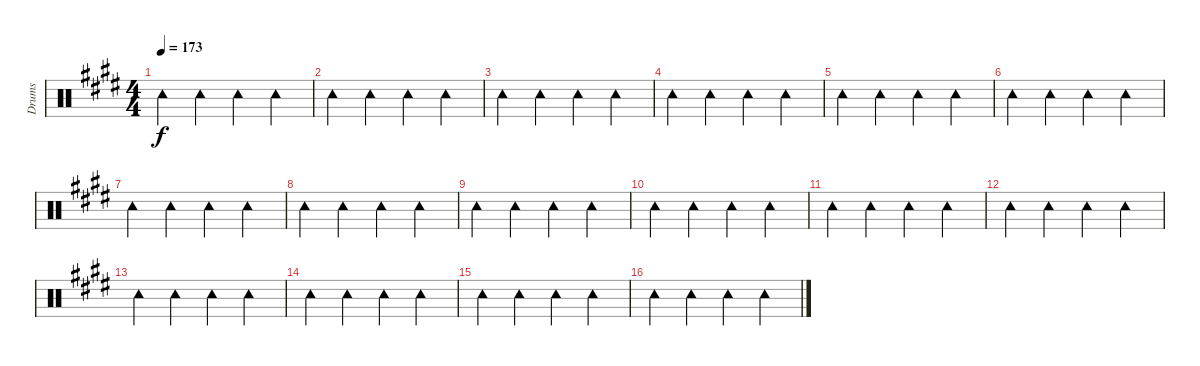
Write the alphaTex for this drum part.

\track ("Drums" "Drums") {instrument percussion}
\staff {score}
\articulation defaults
\ts (4 4)
\tempo 173
\clef neutral
\ks e "Tambourine (hit)".4{dy f} "Tambourine (hit)".4 "Tambourine (hit)".4 "Tambourine (hit)".4
|
"Tambourine (hit)".4 "Tambourine (hit)".4 "Tambourine (hit)".4 "Tambourine (hit)".4 |
"Tambourine (hit)".4 "Tambourine (hit)".4 "Tambourine (hit)".4 "Tambourine (hit)".4 |
"Tambourine (hit)".4 "Tambourine (hit)".4 "Tambourine (hit)".4 "Tambourine (hit)".4 |
"Tambourine (hit)".4 "Tambourine (hit)".4 "Tambourine (hit)".4 "Tambourine (hit)".4 |
"Tambourine (hit)".4 "Tambourine (hit)".4 "Tambourine (hit)".4 "Tambourine (hit)".4 |
"Tambourine (hit)".4 "Tambourine (hit)".4 "Tambourine (hit)".4 "Tambourine (hit)".4 |
"Tambourine (hit)".4 "Tambourine (hit)".4 "Tambourine (hit)".4 "Tambourine (hit)".4 |
"Tambourine (hit)".4 "Tambourine (hit)".4 "Tambourine (hit)".4 "Tambourine (hit)".4 |
"Tambourine (hit)".4 "Tambourine (hit)".4 "Tambourine (hit)".4 "Tambourine (hit)".4 |
"Tambourine (hit)".4 "Tambourine (hit)".4 "Tambourine (hit)".4 "Tambourine (hit)".4 |
"Tambourine (hit)".4 "Tambourine (hit)".4 "Tambourine (hit)".4 "Tambourine (hit)".4 |
"Tambourine (hit)".4 "Tambourine (hit)".4 "Tambourine (hit)".4 "Tambourine (hit)".4 |
"Tambourine (hit)".4 "Tambourine (hit)".4 "Tambourine (hit)".4 "Tambourine (hit)".4 |
"Tambourine (hit)".4 "Tambourine (hit)".4 "Tambourine (hit)".4 "Tambourine (hit)".4 |
"Tambourine (hit)".4 "Tambourine (hit)".4 "Tambourine (hit)".4 "Tambourine (hit)".4
